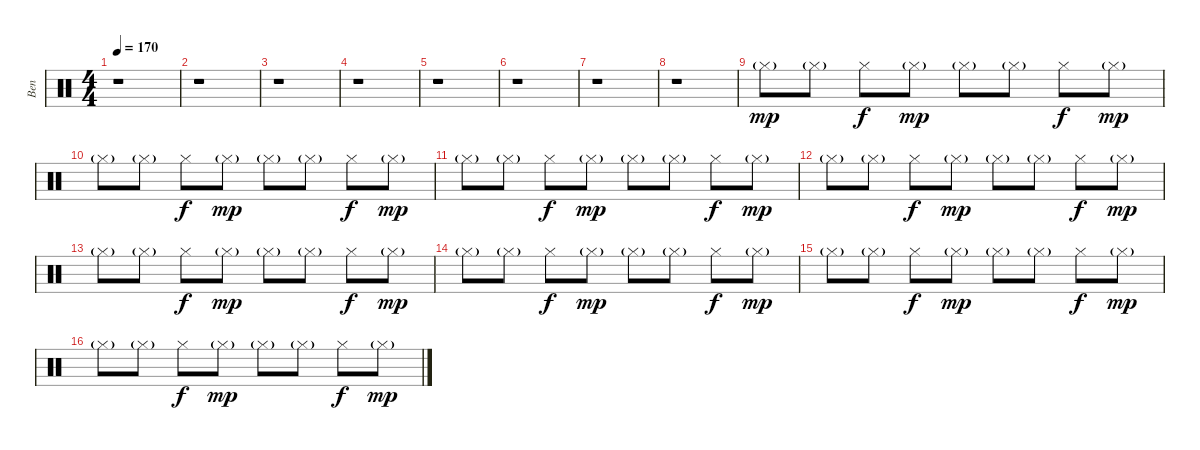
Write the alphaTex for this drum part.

\track ("Ben" "Ben") {instrument percussion}
\staff {score}
\articulation defaults
\ts (4 4)
\tempo 170
\clef neutral
\ks c
r.1{dy mp} |
r.1 |
r.1 |
r.1 |
r.1 |
r.1 |
r.1 |
r.1 |
"Hi-Hat (closed)"{g}.8 "Hi-Hat (closed)"{g}.8 "Hi-Hat (closed)".8{dy f} "Hi-Hat (closed)"{g}.8{dy mp} "Hi-Hat (closed)"{g}.8 "Hi-Hat (closed)"{g}.8 "Hi-Hat (closed)".8{dy f} "Hi-Hat (closed)"{g}.8{dy mp} |
"Hi-Hat (closed)"{g}.8 "Hi-Hat (closed)"{g}.8 "Hi-Hat (closed)".8{dy f} "Hi-Hat (closed)"{g}.8{dy mp} "Hi-Hat (closed)"{g}.8 "Hi-Hat (closed)"{g}.8 "Hi-Hat (closed)".8{dy f} "Hi-Hat (closed)"{g}.8{dy mp} |
"Hi-Hat (closed)"{g}.8 "Hi-Hat (closed)"{g}.8 "Hi-Hat (closed)".8{dy f} "Hi-Hat (closed)"{g}.8{dy mp} "Hi-Hat (closed)"{g}.8 "Hi-Hat (closed)"{g}.8 "Hi-Hat (closed)".8{dy f} "Hi-Hat (closed)"{g}.8{dy mp} |
"Hi-Hat (closed)"{g}.8 "Hi-Hat (closed)"{g}.8 "Hi-Hat (closed)".8{dy f} "Hi-Hat (closed)"{g}.8{dy mp} "Hi-Hat (closed)"{g}.8 "Hi-Hat (closed)"{g}.8 "Hi-Hat (closed)".8{dy f} "Hi-Hat (closed)"{g}.8{dy mp} |
"Hi-Hat (closed)"{g}.8 "Hi-Hat (closed)"{g}.8 "Hi-Hat (closed)".8{dy f} "Hi-Hat (closed)"{g}.8{dy mp} "Hi-Hat (closed)"{g}.8 "Hi-Hat (closed)"{g}.8 "Hi-Hat (closed)".8{dy f} "Hi-Hat (closed)"{g}.8{dy mp} |
"Hi-Hat (closed)"{g}.8 "Hi-Hat (closed)"{g}.8 "Hi-Hat (closed)".8{dy f} "Hi-Hat (closed)"{g}.8{dy mp} "Hi-Hat (closed)"{g}.8 "Hi-Hat (closed)"{g}.8 "Hi-Hat (closed)".8{dy f} "Hi-Hat (closed)"{g}.8{dy mp} |
"Hi-Hat (closed)"{g}.8 "Hi-Hat (closed)"{g}.8 "Hi-Hat (closed)".8{dy f} "Hi-Hat (closed)"{g}.8{dy mp} "Hi-Hat (closed)"{g}.8 "Hi-Hat (closed)"{g}.8 "Hi-Hat (closed)".8{dy f} "Hi-Hat (closed)"{g}.8{dy mp} |
"Hi-Hat (closed)"{g}.8 "Hi-Hat (closed)"{g}.8 "Hi-Hat (closed)".8{dy f} "Hi-Hat (closed)"{g}.8{dy mp} "Hi-Hat (closed)"{g}.8 "Hi-Hat (closed)"{g}.8 "Hi-Hat (closed)".8{dy f} "Hi-Hat (closed)"{g}.8{dy mp}
